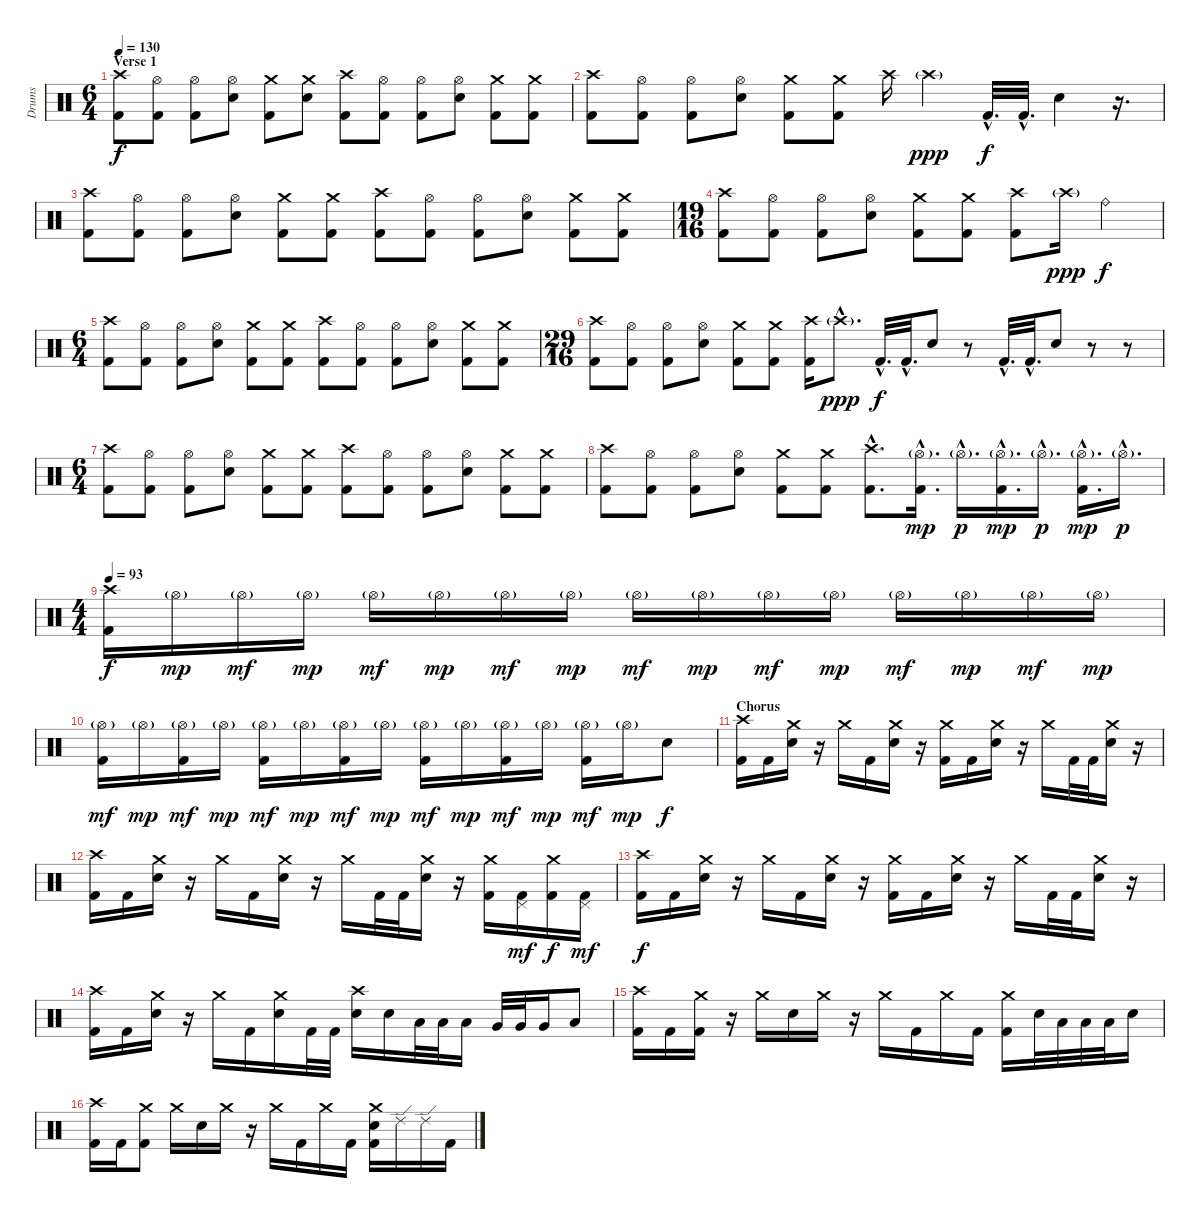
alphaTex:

\track ("Drums" "Drums") {instrument percussion}
\staff {score}
\articulation defaults
\ts (6 4)
\section ("" "Verse 1")
\tempo 130
\clef neutral
\ks c
("Crash high (hit)" "Kick (hit) 2").8{dy f} ("Hi-Hat (open)" "Kick (hit) 2").8 ("Hi-Hat (open)" "Kick (hit) 2").8 ("Hi-Hat (open)" "Electric Snare (hit)").8 ("Crash medium (hit)" "Kick (hit) 2").8 ("Crash medium (hit)" "Electric Snare (hit)").8 ("Crash high (hit)" "Kick (hit) 2").8 ("Hi-Hat (open)" "Kick (hit) 2").8 ("Hi-Hat (open)" "Kick (hit) 2").8 ("Hi-Hat (open)" "Electric Snare (hit)").8 ("Crash medium (hit)" "Kick (hit) 2").8 ("Crash medium (hit)" "Kick (hit) 2").8 |
("Crash high (hit)" "Kick (hit) 2").8 ("Hi-Hat (open)" "Kick (hit) 2").8 ("Hi-Hat (open)" "Kick (hit) 2").8 ("Hi-Hat (open)" "Electric Snare (hit)").8 ("Crash medium (hit)" "Kick (hit) 2").8 ("Crash medium (hit)" "Kick (hit) 2").8 "Crash high (hit)".16 "Crash high (hit)"{g}.4{dy ppp} "Kick (hit) 2"{hac}.32{d dy f} "Kick (hit) 2"{hac}.32{d} "Electric Snare (hit)".4 r.16{d} |
("Crash high (hit)" "Kick (hit) 2").8 ("Hi-Hat (open)" "Kick (hit) 2").8 ("Hi-Hat (open)" "Kick (hit) 2").8 ("Hi-Hat (open)" "Electric Snare (hit)").8 ("Crash medium (hit)" "Kick (hit) 2").8 ("Crash medium (hit)" "Kick (hit) 2").8 ("Crash high (hit)" "Kick (hit) 2").8 ("Hi-Hat (open)" "Kick (hit) 2").8 ("Hi-Hat (open)" "Kick (hit) 2").8 ("Hi-Hat (open)" "Electric Snare (hit)").8 ("Crash medium (hit)" "Kick (hit) 2").8 ("Crash medium (hit)" "Kick (hit) 2").8 |
\ts (19 16)
("Crash high (hit)" "Kick (hit) 2").8 ("Hi-Hat (open)" "Kick (hit) 2").8 ("Hi-Hat (open)" "Kick (hit) 2").8 ("Hi-Hat (open)" "Electric Snare (hit)").8 ("Crash medium (hit)" "Kick (hit) 2").8 ("Crash medium (hit)" "Kick (hit) 2").8 ("Crash high (hit)" "Kick (hit) 2").8 "Crash high (hit)"{g}.16{dy ppp} "Ride (bell)".4{dy f} |
\ts (6 4)
("Crash high (hit)" "Kick (hit) 2").8 ("Hi-Hat (open)" "Kick (hit) 2").8 ("Hi-Hat (open)" "Kick (hit) 2").8 ("Hi-Hat (open)" "Electric Snare (hit)").8 ("Crash medium (hit)" "Kick (hit) 2").8 ("Crash medium (hit)" "Kick (hit) 2").8 ("Crash high (hit)" "Kick (hit) 2").8 ("Hi-Hat (open)" "Kick (hit) 2").8 ("Hi-Hat (open)" "Kick (hit) 2").8 ("Hi-Hat (open)" "Electric Snare (hit)").8 ("Crash medium (hit)" "Kick (hit) 2").8 ("Crash medium (hit)" "Kick (hit) 2").8 |
\ts (29 16)
("Crash high (hit)" "Kick (hit) 2").8 ("Hi-Hat (open)" "Kick (hit) 2").8 ("Hi-Hat (open)" "Kick (hit) 2").8 ("Hi-Hat (open)" "Electric Snare (hit)").8 ("Crash medium (hit)" "Kick (hit) 2").8 ("Crash medium (hit)" "Kick (hit) 2").8 ("Crash high (hit)" "Kick (hit) 2").16 "Crash high (hit)"{g hac}.8{d dy ppp} "Kick (hit) 2"{hac}.32{d dy f} "Kick (hit) 2"{hac}.32{d} "Electric Snare (hit)".8 r.8 "Kick (hit) 2"{hac}.32{d} "Kick (hit) 2"{hac}.32{d} "Electric Snare (hit)".8 r.8 r.8 |
\ts (6 4)
("Crash high (hit)" "Kick (hit) 2").8 ("Hi-Hat (open)" "Kick (hit) 2").8 ("Hi-Hat (open)" "Kick (hit) 2").8 ("Hi-Hat (open)" "Electric Snare (hit)").8 ("Crash medium (hit)" "Kick (hit) 2").8 ("Crash medium (hit)" "Kick (hit) 2").8 ("Crash high (hit)" "Kick (hit) 2").8 ("Hi-Hat (open)" "Kick (hit) 2").8 ("Hi-Hat (open)" "Kick (hit) 2").8 ("Hi-Hat (open)" "Electric Snare (hit)").8 ("Crash medium (hit)" "Kick (hit) 2").8 ("Crash medium (hit)" "Kick (hit) 2").8 |
("Crash high (hit)" "Kick (hit) 2").8 ("Hi-Hat (open)" "Kick (hit) 2").8 ("Hi-Hat (open)" "Kick (hit) 2").8 ("Hi-Hat (open)" "Electric Snare (hit)").8 ("Crash medium (hit)" "Kick (hit) 2").8 ("Crash medium (hit)" "Kick (hit) 2").8 ("Crash high (hit)"{hac} "Kick (hit) 2"{hac}).8{d} ("Hi-Hat (open)"{g hac} "Kick (hit) 2"{hac}).16{d dy mp} "Hi-Hat (open)"{g hac}.16{d dy p} ("Hi-Hat (open)"{g hac} "Kick (hit) 2"{hac}).16{d dy mp} "Hi-Hat (open)"{g hac}.16{d dy p} ("Hi-Hat (open)"{g hac} "Kick (hit) 2"{hac}).16{d dy mp} "Hi-Hat (open)"{g hac}.16{d dy p} |
\ts (4 4)
\tempo 94
\tempo 93
("Crash high (hit)" "Kick (hit) 2").16{dy f} "Hi-Hat (open)"{g}.16{dy mp} "Hi-Hat (open)"{g}.16{dy mf} "Hi-Hat (open)"{g}.16{dy mp} "Hi-Hat (open)"{g}.16{dy mf} "Hi-Hat (open)"{g}.16{dy mp} "Hi-Hat (open)"{g}.16{dy mf} "Hi-Hat (open)"{g}.16{dy mp} "Hi-Hat (open)"{g}.16{dy mf} "Hi-Hat (open)"{g}.16{dy mp} "Hi-Hat (open)"{g}.16{dy mf} "Hi-Hat (open)"{g}.16{dy mp} "Hi-Hat (open)"{g}.16{dy mf} "Hi-Hat (open)"{g}.16{dy mp} "Hi-Hat (open)"{g}.16{dy mf} "Hi-Hat (open)"{g}.16{dy mp} |
("Hi-Hat (open)"{g} "Kick (hit) 2").16{dy mf} "Hi-Hat (open)"{g}.16{dy mp} ("Hi-Hat (open)"{g} "Kick (hit) 2").16{dy mf} "Hi-Hat (open)"{g}.16{dy mp} ("Hi-Hat (open)"{g} "Kick (hit) 2").16{dy mf} "Hi-Hat (open)"{g}.16{dy mp} ("Hi-Hat (open)"{g} "Kick (hit) 2").16{dy mf} "Hi-Hat (open)"{g}.16{dy mp} ("Hi-Hat (open)"{g} "Kick (hit) 2").16{dy mf} "Hi-Hat (open)"{g}.16{dy mp} ("Hi-Hat (open)"{g} "Kick (hit) 2").16{dy mf} "Hi-Hat (open)"{g}.16{dy mp} ("Hi-Hat (open)"{g} "Kick (hit) 2").16{dy mf} "Hi-Hat (open)"{g}.16{dy mp} "Electric Snare (hit)".8{dy f} |
\section ("" "Chorus")
("Crash high (hit)" "Kick (hit) 2").16 "Kick (hit) 2".16 ("Crash medium (hit)" "Electric Snare (hit)").16 r.16 "Crash medium (hit)".16 "Kick (hit) 2".16 ("Crash medium (hit)" "Electric Snare (hit)").16 r.16 ("Crash medium (hit)" "Kick (hit) 2").16 "Kick (hit) 2".16 ("Crash medium (hit)" "Electric Snare (hit)").16 r.16 "Crash medium (hit)".16 "Kick (hit) 2".32 "Kick (hit) 2".32 ("Crash medium (hit)" "Electric Snare (hit)").16 r.16 |
("Crash high (hit)" "Kick (hit) 2").16 "Kick (hit) 2".16 ("Crash medium (hit)" "Electric Snare (hit)").16 r.16 "Crash medium (hit)".16 "Kick (hit) 2".16 ("Crash medium (hit)" "Electric Snare (hit)").16 r.16 "Crash medium (hit)".16 "Kick (hit) 2".32 "Kick (hit) 2".32 ("Crash medium (hit)" "Electric Snare (hit)").16 r.16 ("Crash medium (hit)" "Kick (hit) 2").16 ("Pedal Hi-Hat (hit)" "Kick (hit) 2").16{dy mf} ("Crash medium (hit)" "Kick (hit) 2").16{dy f} ("Pedal Hi-Hat (hit)" "Kick (hit) 2").16{dy mf} |
("Crash high (hit)" "Kick (hit) 2").16{dy f} "Kick (hit) 2".16 ("Crash medium (hit)" "Electric Snare (hit)").16 r.16 "Crash medium (hit)".16 "Kick (hit) 2".16 ("Crash medium (hit)" "Electric Snare (hit)").16 r.16 ("Crash medium (hit)" "Kick (hit) 2").16 "Kick (hit) 2".16 ("Crash medium (hit)" "Electric Snare (hit)").16 r.16 "Crash medium (hit)".16 "Kick (hit) 2".32 "Kick (hit) 2".32 ("Crash medium (hit)" "Electric Snare (hit)").16 r.16 |
("Crash high (hit)" "Kick (hit) 2").16 "Kick (hit) 2".16 ("Crash medium (hit)" "Electric Snare (hit)").16 r.16 "Crash medium (hit)".16 "Kick (hit) 2".16 ("Crash medium (hit)" "Electric Snare (hit)").16 "Kick (hit) 2".32 "Kick (hit) 2".32 ("Crash high (hit)" "Electric Snare (hit)").16 "Electric Snare (hit)".16 "Low Tom (hit)".32 "Low Tom (hit)".32 "Low Tom (hit)".16 "Very Low Tom (hit)".32 "Very Low Tom (hit)".32 "Very Low Tom (hit)".16 "Low Floor Tom (hit)".8 |
("Crash high (hit)" "Kick (hit) 2").16 "Kick (hit) 2".16 ("Crash medium (hit)" "Kick (hit) 2").16 r.16 "Crash medium (hit)".16 "Electric Snare (hit)".16 "Crash medium (hit)".16 r.16 "Crash medium (hit)".16 "Kick (hit) 2".16 "Crash medium (hit)".16 "Kick (hit) 2".16 ("Crash medium (hit)" "Kick (hit) 2").16 "Electric Snare (hit)".32 "Low Tom (hit)".32 "Low Tom (hit)".32 "Low Tom (hit)".32 "Electric Snare (hit)".16 |
("Crash high (hit)" "Kick (hit) 2").16 "Kick (hit) 2".16 ("Crash medium (hit)" "Kick (hit) 2").8 "Crash medium (hit)".16 "Electric Snare (hit)".16 "Crash medium (hit)".16 r.16 "Crash medium (hit)".16 "Kick (hit) 2".16 "Crash medium (hit)".16 "Kick (hit) 2".16 ("Crash medium (hit)" "Electric Snare (hit)" "Kick (hit) 2").16 "Ride (edge) 2".16 "Ride (edge) 2".16 "Kick (hit) 2".16
